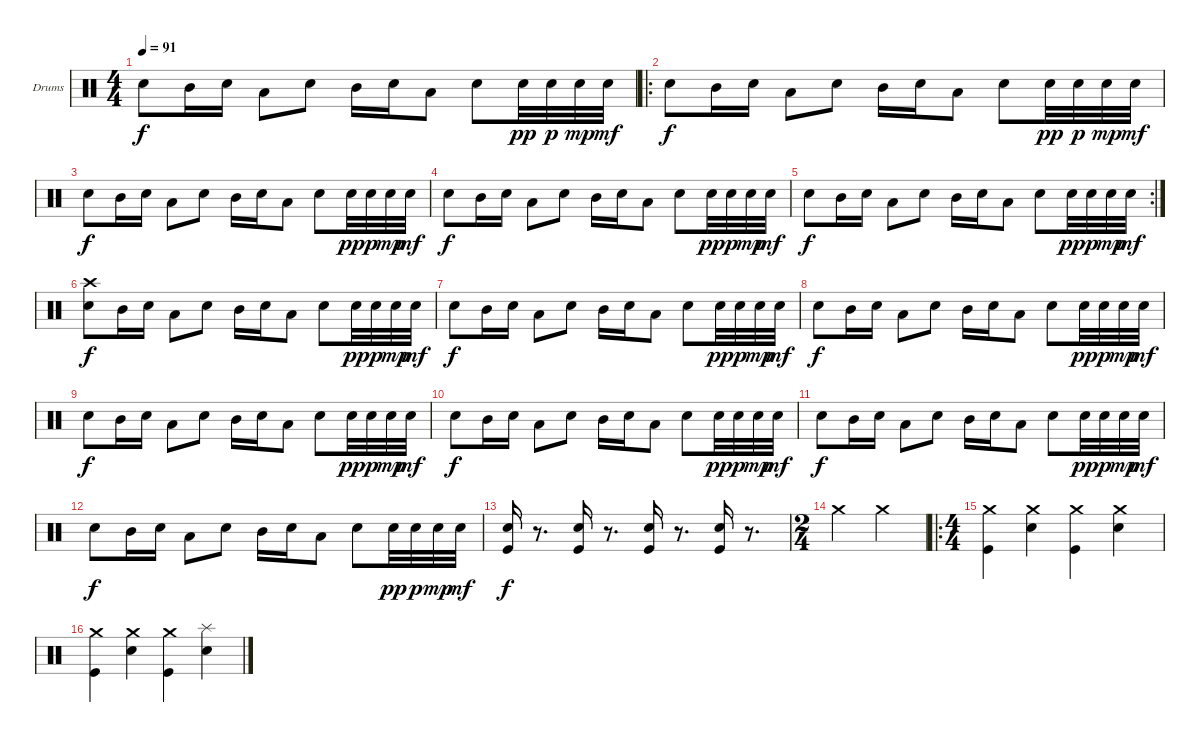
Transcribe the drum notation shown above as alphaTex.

\defaultSystemsLayout 4
\bracketExtendMode groupsimilarinstruments
\firstSystemTrackNameOrientation horizontal
\otherSystemsTrackNameOrientation horizontal
\track ("Drumkit" "Drums") {instrument percussion}
\staff {score}
\articulation defaults
\ts (4 4)
\tempo 91
\clef neutral
\scale
0.311475
\ks c "Snare (hit) 2".8{dy f} "Mid Tom (hit)".16 "Snare (hit) 2".16 "Low Tom (hit)".8 "Snare (hit) 2".8 "Mid Tom (hit)".16 "Snare (hit) 2".16 "Low Tom (hit)".8 "Snare (hit) 2".8 "Snare (hit) 2".32{dy pp} "Snare (hit) 2".32{dy p} "Snare (hit) 2".32{dy mp} "Snare (hit) 2".32{dy mf}
|
\ro
\scale
0.377049 "Snare (hit) 2".8{dy f} "Mid Tom (hit)".16 "Snare (hit) 2".16 "Low Tom (hit)".8 "Snare (hit) 2".8 "Mid Tom (hit)".16 "Snare (hit) 2".16 "Low Tom (hit)".8 "Snare (hit) 2".8 "Snare (hit) 2".32{dy pp} "Snare (hit) 2".32{dy p} "Snare (hit) 2".32{dy mp} "Snare (hit) 2".32{dy mf} |
\scale
0.311475 "Snare (hit) 2".8{dy f} "Mid Tom (hit)".16 "Snare (hit) 2".16 "Low Tom (hit)".8 "Snare (hit) 2".8 "Mid Tom (hit)".16 "Snare (hit) 2".16 "Low Tom (hit)".8 "Snare (hit) 2".8 "Snare (hit) 2".32{dy pp} "Snare (hit) 2".32{dy p} "Snare (hit) 2".32{dy mp} "Snare (hit) 2".32{dy mf} |
\scale
0.322034 "Snare (hit) 2".8{dy f} "Mid Tom (hit)".16 "Snare (hit) 2".16 "Low Tom (hit)".8 "Snare (hit) 2".8 "Mid Tom (hit)".16 "Snare (hit) 2".16 "Low Tom (hit)".8 "Snare (hit) 2".8 "Snare (hit) 2".32{dy pp} "Snare (hit) 2".32{dy p} "Snare (hit) 2".32{dy mp} "Snare (hit) 2".32{dy mf} |
\rc 2
\scale
0.355932 "Snare (hit) 2".8{dy f} "Mid Tom (hit)".16 "Snare (hit) 2".16 "Low Tom (hit)".8 "Snare (hit) 2".8 "Mid Tom (hit)".16 "Snare (hit) 2".16 "Low Tom (hit)".8 "Snare (hit) 2".8 "Snare (hit) 2".32{dy pp} "Snare (hit) 2".32{dy p} "Snare (hit) 2".32{dy mp} "Snare (hit) 2".32{dy mf} |
\scale
0.322034 ("Snare (hit) 2" "Crash high (hit)").8{dy f} "Mid Tom (hit)".16 "Snare (hit) 2".16 "Low Tom (hit)".8 "Snare (hit) 2".8 "Mid Tom (hit)".16 "Snare (hit) 2".16 "Low Tom (hit)".8 "Snare (hit) 2".8 "Snare (hit) 2".32{dy pp} "Snare (hit) 2".32{dy p} "Snare (hit) 2".32{dy mp} "Snare (hit) 2".32{dy mf} |
\scale
0.333333 "Snare (hit) 2".8{dy f} "Mid Tom (hit)".16 "Snare (hit) 2".16 "Low Tom (hit)".8 "Snare (hit) 2".8 "Mid Tom (hit)".16 "Snare (hit) 2".16 "Low Tom (hit)".8 "Snare (hit) 2".8 "Snare (hit) 2".32{dy pp} "Snare (hit) 2".32{dy p} "Snare (hit) 2".32{dy mp} "Snare (hit) 2".32{dy mf} |
\scale
0.333333 "Snare (hit) 2".8{dy f} "Mid Tom (hit)".16 "Snare (hit) 2".16 "Low Tom (hit)".8 "Snare (hit) 2".8 "Mid Tom (hit)".16 "Snare (hit) 2".16 "Low Tom (hit)".8 "Snare (hit) 2".8 "Snare (hit) 2".32{dy pp} "Snare (hit) 2".32{dy p} "Snare (hit) 2".32{dy mp} "Snare (hit) 2".32{dy mf} |
\scale
0.333333 "Snare (hit) 2".8{dy f} "Mid Tom (hit)".16 "Snare (hit) 2".16 "Low Tom (hit)".8 "Snare (hit) 2".8 "Mid Tom (hit)".16 "Snare (hit) 2".16 "Low Tom (hit)".8 "Snare (hit) 2".8 "Snare (hit) 2".32{dy pp} "Snare (hit) 2".32{dy p} "Snare (hit) 2".32{dy mp} "Snare (hit) 2".32{dy mf} |
\scale
0.333333 "Snare (hit) 2".8{dy f} "Mid Tom (hit)".16 "Snare (hit) 2".16 "Low Tom (hit)".8 "Snare (hit) 2".8 "Mid Tom (hit)".16 "Snare (hit) 2".16 "Low Tom (hit)".8 "Snare (hit) 2".8 "Snare (hit) 2".32{dy pp} "Snare (hit) 2".32{dy p} "Snare (hit) 2".32{dy mp} "Snare (hit) 2".32{dy mf} |
\scale
0.333333 "Snare (hit) 2".8{dy f} "Mid Tom (hit)".16 "Snare (hit) 2".16 "Low Tom (hit)".8 "Snare (hit) 2".8 "Mid Tom (hit)".16 "Snare (hit) 2".16 "Low Tom (hit)".8 "Snare (hit) 2".8 "Snare (hit) 2".32{dy pp} "Snare (hit) 2".32{dy p} "Snare (hit) 2".32{dy mp} "Snare (hit) 2".32{dy mf} |
\scale
0.333333 "Snare (hit) 2".8{dy f} "Mid Tom (hit)".16 "Snare (hit) 2".16 "Low Tom (hit)".8 "Snare (hit) 2".8 "Mid Tom (hit)".16 "Snare (hit) 2".16 "Low Tom (hit)".8 "Snare (hit) 2".8 "Snare (hit) 2".32{dy pp} "Snare (hit) 2".32{dy p} "Snare (hit) 2".32{dy mp} "Snare (hit) 2".32{dy mf} |
("Snare (hit) 2" "Kick (hit)").16{dy f} r.8{d} ("Snare (hit) 2" "Kick (hit)").16 r.8{d} ("Snare (hit) 2" "Kick (hit)").16 r.8{d} ("Snare (hit) 2" "Kick (hit)").16 r.8{d} |
\ts (2 4)
"Crash medium (hit)".4 "Crash medium (hit)".4 |
\ro
\ts (4 4)
\scale
0.417582 ("Kick (hit)" "Crash medium (hit)").4 ("Snare (hit) 2" "Crash medium (hit)").4 ("Kick (hit)" "Crash medium (hit)").4 ("Snare (hit) 2" "Crash medium (hit)").4 |
\scale
0.208791 ("Kick (hit)" "Crash medium (hit)").4 ("Snare (hit) 2" "Crash medium (hit)").4 ("Kick (hit)" "Crash medium (hit)").4 ("Snare (hit) 2" "Splash (hit)").4
